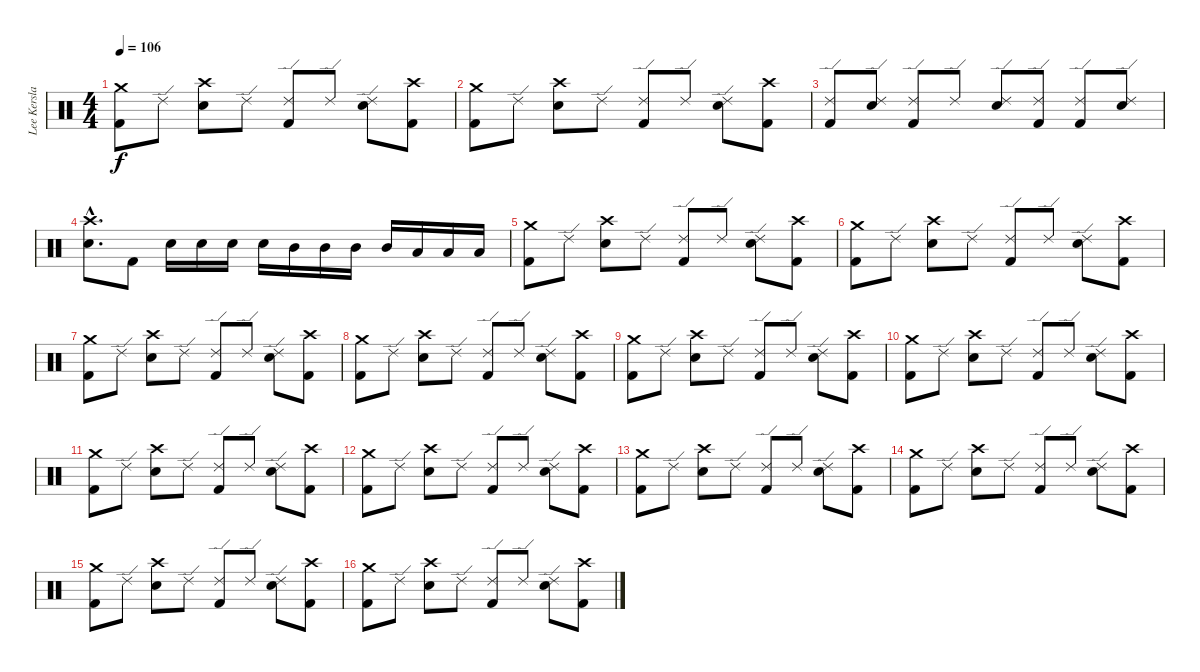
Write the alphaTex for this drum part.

\track ("Lee Kerslake" "Lee Kersla") {instrument percussion}
\staff {score}
\articulation defaults
\ts (4 4)
\tempo 106
\clef neutral
\ks c
("Crash medium (hit)" "Kick (hit) 2").8{dy f} "Ride (edge) 2".8 ("Crash high (hit)" "Snare (hit) 2").8 "Ride (edge) 2".8 ("Ride (edge) 2" "Kick (hit) 2").8 "Ride (edge) 2".8 ("Ride (edge) 2" "Snare (hit) 2").8 ("Crash high (hit)" "Kick (hit) 2").8 |
("Crash medium (hit)" "Kick (hit) 2").8 "Ride (edge) 2".8 ("Crash high (hit)" "Snare (hit) 2").8 "Ride (edge) 2".8 ("Ride (edge) 2" "Kick (hit) 2").8 "Ride (edge) 2".8 ("Ride (edge) 2" "Snare (hit) 2").8 ("Crash high (hit)" "Kick (hit) 2").8 |
("Ride (edge) 2" "Kick (hit) 2").8 ("Ride (edge) 2" "Snare (hit) 2").8 ("Ride (edge) 2" "Kick (hit) 2").8 "Ride (edge) 2".8 ("Ride (edge) 2" "Snare (hit) 2").8 ("Ride (edge) 2" "Kick (hit) 2").8 ("Ride (edge) 2" "Kick (hit) 2").8 ("Ride (edge) 2" "Snare (hit) 2").8 |
("Crash high (hit)"{hac} "Snare (hit) 2"{hac}).8{d} "Kick (hit) 2".8 "Snare (hit) 2".16 "Snare (hit) 2".16 "Snare (hit) 2".16 "Snare (hit) 2".16 "Mid Tom (hit)".16 "Mid Tom (hit)".16 "Mid Tom (hit)".16 "Mid Tom (hit)".16 "Low Tom (hit)".16 "Low Tom (hit)".16 "Low Tom (hit)".16 |
("Crash medium (hit)" "Kick (hit) 2").8 "Ride (edge) 2".8 ("Crash high (hit)" "Snare (hit) 2").8 "Ride (edge) 2".8 ("Ride (edge) 2" "Kick (hit) 2").8 "Ride (edge) 2".8 ("Ride (edge) 2" "Snare (hit) 2").8 ("Crash high (hit)" "Kick (hit) 2").8 |
("Crash medium (hit)" "Kick (hit) 2").8 "Ride (edge) 2".8 ("Crash high (hit)" "Snare (hit) 2").8 "Ride (edge) 2".8 ("Ride (edge) 2" "Kick (hit) 2").8 "Ride (edge) 2".8 ("Ride (edge) 2" "Snare (hit) 2").8 ("Crash high (hit)" "Kick (hit) 2").8 |
("Crash medium (hit)" "Kick (hit) 2").8 "Ride (edge) 2".8 ("Crash high (hit)" "Snare (hit) 2").8 "Ride (edge) 2".8 ("Ride (edge) 2" "Kick (hit) 2").8 "Ride (edge) 2".8 ("Ride (edge) 2" "Snare (hit) 2").8 ("Crash high (hit)" "Kick (hit) 2").8 |
("Crash medium (hit)" "Kick (hit) 2").8 "Ride (edge) 2".8 ("Crash high (hit)" "Snare (hit) 2").8 "Ride (edge) 2".8 ("Ride (edge) 2" "Kick (hit) 2").8 "Ride (edge) 2".8 ("Ride (edge) 2" "Snare (hit) 2").8 ("Crash high (hit)" "Kick (hit) 2").8 |
("Crash medium (hit)" "Kick (hit) 2").8 "Ride (edge) 2".8 ("Crash high (hit)" "Snare (hit) 2").8 "Ride (edge) 2".8 ("Ride (edge) 2" "Kick (hit) 2").8 "Ride (edge) 2".8 ("Ride (edge) 2" "Snare (hit) 2").8 ("Crash high (hit)" "Kick (hit) 2").8 |
("Crash medium (hit)" "Kick (hit) 2").8 "Ride (edge) 2".8 ("Crash high (hit)" "Snare (hit) 2").8 "Ride (edge) 2".8 ("Ride (edge) 2" "Kick (hit) 2").8 "Ride (edge) 2".8 ("Ride (edge) 2" "Snare (hit) 2").8 ("Crash high (hit)" "Kick (hit) 2").8 |
("Crash medium (hit)" "Kick (hit) 2").8 "Ride (edge) 2".8 ("Crash high (hit)" "Snare (hit) 2").8 "Ride (edge) 2".8 ("Ride (edge) 2" "Kick (hit) 2").8 "Ride (edge) 2".8 ("Ride (edge) 2" "Snare (hit) 2").8 ("Crash high (hit)" "Kick (hit) 2").8 |
("Crash medium (hit)" "Kick (hit) 2").8 "Ride (edge) 2".8 ("Crash high (hit)" "Snare (hit) 2").8 "Ride (edge) 2".8 ("Ride (edge) 2" "Kick (hit) 2").8 "Ride (edge) 2".8 ("Ride (edge) 2" "Snare (hit) 2").8 ("Crash high (hit)" "Kick (hit) 2").8 |
("Crash medium (hit)" "Kick (hit) 2").8 "Ride (edge) 2".8 ("Crash high (hit)" "Snare (hit) 2").8 "Ride (edge) 2".8 ("Ride (edge) 2" "Kick (hit) 2").8 "Ride (edge) 2".8 ("Ride (edge) 2" "Snare (hit) 2").8 ("Crash high (hit)" "Kick (hit) 2").8 |
("Crash medium (hit)" "Kick (hit) 2").8 "Ride (edge) 2".8 ("Crash high (hit)" "Snare (hit) 2").8 "Ride (edge) 2".8 ("Ride (edge) 2" "Kick (hit) 2").8 "Ride (edge) 2".8 ("Ride (edge) 2" "Snare (hit) 2").8 ("Crash high (hit)" "Kick (hit) 2").8 |
("Crash medium (hit)" "Kick (hit) 2").8 "Ride (edge) 2".8 ("Crash high (hit)" "Snare (hit) 2").8 "Ride (edge) 2".8 ("Ride (edge) 2" "Kick (hit) 2").8 "Ride (edge) 2".8 ("Ride (edge) 2" "Snare (hit) 2").8 ("Crash high (hit)" "Kick (hit) 2").8 |
("Crash medium (hit)" "Kick (hit) 2").8 "Ride (edge) 2".8 ("Crash high (hit)" "Snare (hit) 2").8 "Ride (edge) 2".8 ("Ride (edge) 2" "Kick (hit) 2").8 "Ride (edge) 2".8 ("Ride (edge) 2" "Snare (hit) 2").8 ("Crash high (hit)" "Kick (hit) 2").8
